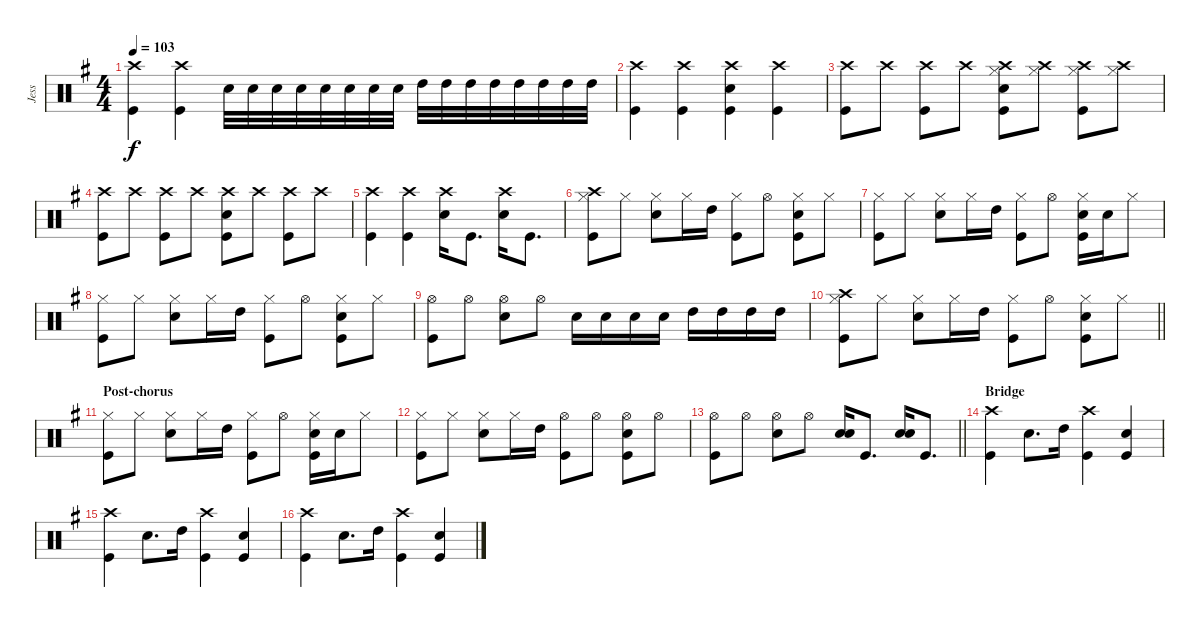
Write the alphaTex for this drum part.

\track ("Jess" "Jess") {instrument percussion}
\staff {score}
\articulation defaults
\ts (4 4)
\tempo 103
\clef neutral
\ks g
("Crash high (hit)" "Kick (hit)").4{dy f} ("Crash high (hit)" "Kick (hit)").4 "Snare (hit) 2".32 "Snare (hit) 2".32 "Snare (hit) 2".32 "Snare (hit) 2".32 "Snare (hit) 2".32 "Snare (hit) 2".32 "Snare (hit) 2".32 "Snare (hit) 2".32 "High Tom (hit)".32 "High Tom (hit)".32 "High Tom (hit)".32 "High Tom (hit)".32 "High Tom (hit)".32 "High Tom (hit)".32 "High Tom (hit)".32 "High Tom (hit)".32 |
("Crash high (hit)" "Kick (hit)").4 ("Crash high (hit)" "Kick (hit)").4 ("Crash high (hit)" "Snare (hit) 2" "Kick (hit)").4 ("Crash high (hit)" "Kick (hit)").4 |
("Crash high (hit)" "Kick (hit)").8 "Crash high (hit)".8 ("Crash high (hit)" "Kick (hit)").8 "Crash high (hit)".8 ("Crash high (hit)" "Hi-Hat (closed)" "Snare (hit) 2" "Kick (hit)").8 ("Crash high (hit)" "Hi-Hat (closed)").8 ("Crash high (hit)" "Hi-Hat (closed)" "Kick (hit)").8 ("Crash high (hit)" "Hi-Hat (closed)").8 |
("Crash high (hit)" "Kick (hit)").8 "Crash high (hit)".8 ("Crash high (hit)" "Kick (hit)").8 "Crash high (hit)".8 ("Crash high (hit)" "Snare (hit) 2" "Kick (hit)").8 "Crash high (hit)".8 ("Crash high (hit)" "Kick (hit)").8 "Crash high (hit)".8 |
("Crash high (hit)" "Kick (hit)").4 ("Crash high (hit)" "Kick (hit)").4 ("Crash high (hit)" "Snare (hit) 2").16 "Kick (hit)".8{d} ("Crash high (hit)" "Snare (hit) 2").16 "Kick (hit)".8{d} |
("Crash high (hit)" "Hi-Hat (closed)" "Kick (hit)").8 "Hi-Hat (closed)".8 ("Hi-Hat (closed)" "Snare (hit) 2").8 "Hi-Hat (closed)".16 "High Tom (hit)".16 ("Hi-Hat (closed)" "Kick (hit)").8 "Hi-Hat (open)".8 ("Hi-Hat (closed)" "Snare (hit) 2" "Kick (hit)").8 "Hi-Hat (closed)".8 |
("Hi-Hat (closed)" "Kick (hit)").8 "Hi-Hat (closed)".8 ("Hi-Hat (closed)" "Snare (hit) 2").8 "Hi-Hat (closed)".16 "High Tom (hit)".16 ("Hi-Hat (closed)" "Kick (hit)").8 "Hi-Hat (open)".8 ("Hi-Hat (closed)" "Snare (hit) 2" "Kick (hit)").16 "Snare (hit) 2".16 "Hi-Hat (closed)".8 |
("Hi-Hat (closed)" "Kick (hit)").8 "Hi-Hat (closed)".8 ("Hi-Hat (closed)" "Snare (hit) 2").8 "Hi-Hat (closed)".16 "High Tom (hit)".16 ("Hi-Hat (closed)" "Kick (hit)").8 "Hi-Hat (open)".8 ("Hi-Hat (closed)" "Snare (hit) 2" "Kick (hit)").8 "Hi-Hat (closed)".8 |
("Hi-Hat (open)" "Kick (hit)").8 "Hi-Hat (open)".8 ("Hi-Hat (open)" "Snare (hit) 2").8 "Hi-Hat (open)".8 "Snare (hit) 2".16 "Snare (hit) 2".16 "Snare (hit) 2".16 "Snare (hit) 2".16 "High Tom (hit)".16 "High Tom (hit)".16 "High Tom (hit)".16 "High Tom (hit)".16 |
\barLineRight lightlight
("Crash high (hit)" "Hi-Hat (closed)" "Kick (hit)").8 "Hi-Hat (closed)".8 ("Hi-Hat (closed)" "Snare (hit) 2").8 "Hi-Hat (closed)".16 "High Tom (hit)".16 ("Hi-Hat (closed)" "Kick (hit)").8 "Hi-Hat (open)".8 ("Hi-Hat (closed)" "Snare (hit) 2" "Kick (hit)").8 "Hi-Hat (closed)".8 |
\section ("" "Post-chorus")
("Hi-Hat (closed)" "Kick (hit)").8 "Hi-Hat (closed)".8 ("Hi-Hat (closed)" "Snare (hit) 2").8 "Hi-Hat (closed)".16 "High Tom (hit)".16 ("Hi-Hat (closed)" "Kick (hit)").8 "Hi-Hat (open)".8 ("Hi-Hat (closed)" "Snare (hit) 2" "Kick (hit)").16 "Snare (hit) 2".16 "Hi-Hat (closed)".8 |
("Hi-Hat (closed)" "Kick (hit)").8 "Hi-Hat (closed)".8 ("Hi-Hat (closed)" "Snare (hit) 2").8 "Hi-Hat (closed)".16 "High Tom (hit)".16 ("Hi-Hat (open)" "Kick (hit)").8 "Hi-Hat (open)".8 ("Hi-Hat (open)" "Snare (hit) 2" "Kick (hit)").8 "Hi-Hat (open)".8 |
\barLineRight lightlight
("Hi-Hat (open)" "Kick (hit)").8 "Hi-Hat (open)".8 ("Hi-Hat (open)" "Snare (hit) 2").8 "Hi-Hat (open)".8 ("Snare (hit) 2" "Snare (hit) 2").16 "Kick (hit)".8{d} ("Snare (hit) 2" "Snare (hit) 2").16 "Kick (hit)".8{d} |
\section ("" "Bridge")
("Crash high (hit)" "Kick (hit)").4 "Snare (hit) 2".8{d} "High Tom (hit)".16 ("Crash high (hit)" "Kick (hit)").4 ("Snare (hit) 2" "Kick (hit)").4 |
("Crash high (hit)" "Kick (hit)").4 "Snare (hit) 2".8{d} "High Tom (hit)".16 ("Crash high (hit)" "Kick (hit)").4 ("Snare (hit) 2" "Kick (hit)").4 |
("Crash high (hit)" "Kick (hit)").4 "Snare (hit) 2".8{d} "High Tom (hit)".16 ("Crash high (hit)" "Kick (hit)").4 ("Snare (hit) 2" "Kick (hit)").4
